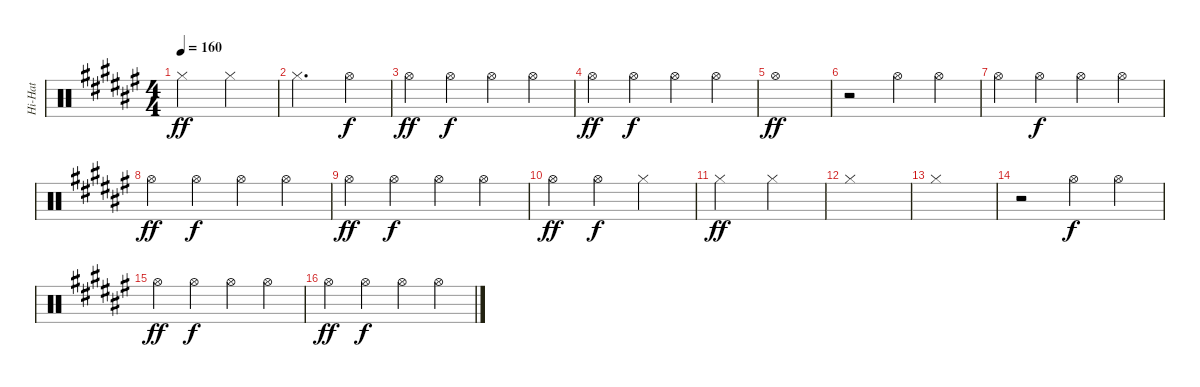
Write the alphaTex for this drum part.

\track ("Hi-Hat" "Hi-Hat") {instrument percussion}
\staff {score}
\articulation defaults
\ts (4 4)
\tempo 160
\clef neutral
\ks d#minor "Hi-Hat (closed)".2{dy ff} "Hi-Hat (closed)".2
|
"Hi-Hat (closed)".2{d} "Hi-Hat (open)".4{dy f} |
"Hi-Hat (open)".4{dy ff} "Hi-Hat (open)".4{dy f} "Hi-Hat (open)".4 "Hi-Hat (open)".4 |
"Hi-Hat (open)".4{dy ff} "Hi-Hat (open)".4{dy f} "Hi-Hat (open)".4 "Hi-Hat (open)".4 |
"Hi-Hat (open)".1{dy ff} |
r.2 "Hi-Hat (open)".4 "Hi-Hat (open)".4 |
"Hi-Hat (open)".4 "Hi-Hat (open)".4{dy f} "Hi-Hat (open)".4 "Hi-Hat (open)".4 |
"Hi-Hat (open)".4{dy ff} "Hi-Hat (open)".4{dy f} "Hi-Hat (open)".4 "Hi-Hat (open)".4 |
"Hi-Hat (open)".4{dy ff} "Hi-Hat (open)".4{dy f} "Hi-Hat (open)".4 "Hi-Hat (open)".4 |
"Hi-Hat (open)".4{dy ff} "Hi-Hat (open)".4{dy f} "Hi-Hat (closed)".2 |
"Hi-Hat (closed)".2{dy ff} "Hi-Hat (closed)".2 |
"Hi-Hat (closed)".1 |
"Hi-Hat (closed)".1 |
r.2 "Hi-Hat (open)".4{dy f} "Hi-Hat (open)".4 |
"Hi-Hat (open)".4{dy ff} "Hi-Hat (open)".4{dy f} "Hi-Hat (open)".4 "Hi-Hat (open)".4 |
"Hi-Hat (open)".4{dy ff} "Hi-Hat (open)".4{dy f} "Hi-Hat (open)".4 "Hi-Hat (open)".4
